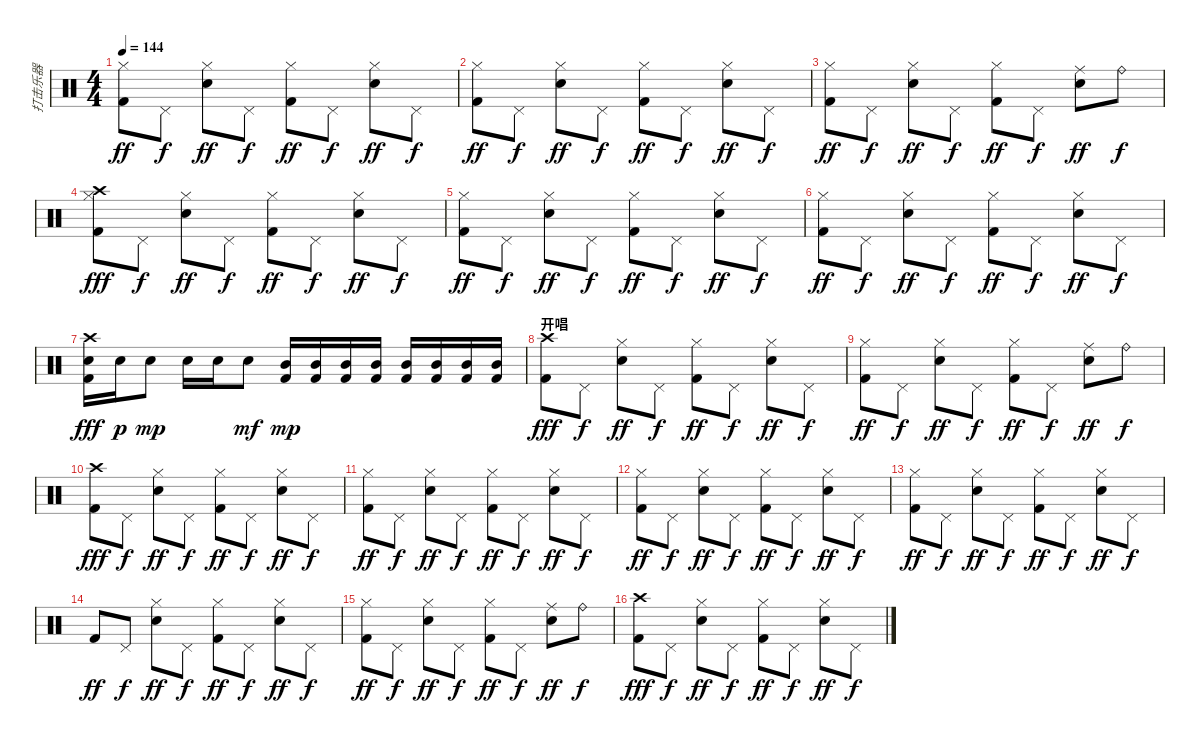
\track ("打击乐器" "打击乐器") {instrument percussion}
\staff {score}
\articulation defaults
\ts (4 4)
\tempo 144
\clef neutral
\ks c
("Kick (hit) 2" "Hi-Hat (closed)").8{dy ff} "Pedal Hi-Hat (hit)".8{dy f} ("Snare (hit) 2" "Hi-Hat (closed)").8{dy ff} "Pedal Hi-Hat (hit)".8{dy f} ("Kick (hit) 2" "Hi-Hat (closed)").8{dy ff} "Pedal Hi-Hat (hit)".8{dy f} ("Snare (hit) 2" "Hi-Hat (closed)").8{dy ff} "Pedal Hi-Hat (hit)".8{dy f} |
("Kick (hit) 2" "Hi-Hat (closed)").8{dy ff} "Pedal Hi-Hat (hit)".8{dy f} ("Snare (hit) 2" "Hi-Hat (closed)").8{dy ff} "Pedal Hi-Hat (hit)".8{dy f} ("Kick (hit) 2" "Hi-Hat (closed)").8{dy ff} "Pedal Hi-Hat (hit)".8{dy f} ("Snare (hit) 2" "Hi-Hat (closed)").8{dy ff} "Pedal Hi-Hat (hit)".8{dy f} |
("Kick (hit) 2" "Hi-Hat (closed)").8{dy ff} "Pedal Hi-Hat (hit)".8{dy f} ("Snare (hit) 2" "Hi-Hat (closed)").8{dy ff} "Pedal Hi-Hat (hit)".8{dy f} ("Kick (hit) 2" "Hi-Hat (closed)").8{dy ff} "Pedal Hi-Hat (hit)".8{dy f} ("Snare (hit) 2" "Ride (middle)").8{dy ff} "Ride (bell)".8{dy f} |
("Kick (hit) 2" "Hi-Hat (closed)" "Crash high (hit)").8{dy fff} "Pedal Hi-Hat (hit)".8{dy f} ("Snare (hit) 2" "Hi-Hat (closed)").8{dy ff} "Pedal Hi-Hat (hit)".8{dy f} ("Kick (hit) 2" "Hi-Hat (closed)").8{dy ff} "Pedal Hi-Hat (hit)".8{dy f} ("Snare (hit) 2" "Hi-Hat (closed)").8{dy ff} "Pedal Hi-Hat (hit)".8{dy f} |
("Kick (hit) 2" "Hi-Hat (closed)").8{dy ff} "Pedal Hi-Hat (hit)".8{dy f} ("Snare (hit) 2" "Hi-Hat (closed)").8{dy ff} "Pedal Hi-Hat (hit)".8{dy f} ("Kick (hit) 2" "Hi-Hat (closed)").8{dy ff} "Pedal Hi-Hat (hit)".8{dy f} ("Snare (hit) 2" "Hi-Hat (closed)").8{dy ff} "Pedal Hi-Hat (hit)".8{dy f} |
("Kick (hit) 2" "Hi-Hat (closed)").8{dy ff} "Pedal Hi-Hat (hit)".8{dy f} ("Snare (hit) 2" "Hi-Hat (closed)").8{dy ff} "Pedal Hi-Hat (hit)".8{dy f} ("Kick (hit) 2" "Hi-Hat (closed)").8{dy ff} "Pedal Hi-Hat (hit)".8{dy f} ("Snare (hit) 2" "Hi-Hat (closed)").8{dy ff} "Pedal Hi-Hat (hit)".8{dy f} |
("Kick (hit) 2" "Snare (hit) 2" "Crash high (hit)").16{dy fff} "Snare (hit) 2".16{dy p} "Snare (hit) 2".8{dy mp} "Snare (hit) 2".16 "Snare (hit) 2".16 "Snare (hit) 2".8{dy mf} ("Kick (hit) 2" "Mid Tom (hit)").16{dy mp} ("Kick (hit) 2" "Mid Tom (hit)").16 ("Kick (hit) 2" "Mid Tom (hit)").16 ("Kick (hit) 2" "Mid Tom (hit)").16 ("Kick (hit) 2" "Mid Tom (hit)").16 ("Kick (hit) 2" "Mid Tom (hit)").16 ("Kick (hit) 2" "Mid Tom (hit)").16 ("Kick (hit) 2" "Mid Tom (hit)").16 |
\section ("" "开唱")
("Kick (hit) 2" "Crash high (hit)").8{dy fff} "Pedal Hi-Hat (hit)".8{dy f} ("Snare (hit) 2" "Hi-Hat (closed)").8{dy ff} "Pedal Hi-Hat (hit)".8{dy f} ("Kick (hit) 2" "Hi-Hat (closed)").8{dy ff} "Pedal Hi-Hat (hit)".8{dy f} ("Snare (hit) 2" "Hi-Hat (closed)").8{dy ff} "Pedal Hi-Hat (hit)".8{dy f} |
("Kick (hit) 2" "Hi-Hat (closed)").8{dy ff} "Pedal Hi-Hat (hit)".8{dy f} ("Snare (hit) 2" "Hi-Hat (closed)").8{dy ff} "Pedal Hi-Hat (hit)".8{dy f} ("Kick (hit) 2" "Hi-Hat (closed)").8{dy ff} "Pedal Hi-Hat (hit)".8{dy f} ("Snare (hit) 2" "Ride (middle)").8{dy ff} "Ride (bell)".8{dy f} |
("Kick (hit) 2" "Crash high (hit)").8{dy fff} "Pedal Hi-Hat (hit)".8{dy f} ("Snare (hit) 2" "Hi-Hat (closed)").8{dy ff} "Pedal Hi-Hat (hit)".8{dy f} ("Kick (hit) 2" "Hi-Hat (closed)").8{dy ff} "Pedal Hi-Hat (hit)".8{dy f} ("Snare (hit) 2" "Hi-Hat (closed)").8{dy ff} "Pedal Hi-Hat (hit)".8{dy f} |
("Kick (hit) 2" "Hi-Hat (closed)").8{dy ff} "Pedal Hi-Hat (hit)".8{dy f} ("Snare (hit) 2" "Hi-Hat (closed)").8{dy ff} "Pedal Hi-Hat (hit)".8{dy f} ("Kick (hit) 2" "Hi-Hat (closed)").8{dy ff} "Pedal Hi-Hat (hit)".8{dy f} ("Snare (hit) 2" "Hi-Hat (closed)").8{dy ff} "Pedal Hi-Hat (hit)".8{dy f} |
("Kick (hit) 2" "Hi-Hat (closed)").8{dy ff} "Pedal Hi-Hat (hit)".8{dy f} ("Snare (hit) 2" "Hi-Hat (closed)").8{dy ff} "Pedal Hi-Hat (hit)".8{dy f} ("Kick (hit) 2" "Hi-Hat (closed)").8{dy ff} "Pedal Hi-Hat (hit)".8{dy f} ("Snare (hit) 2" "Hi-Hat (closed)").8{dy ff} "Pedal Hi-Hat (hit)".8{dy f} |
("Kick (hit) 2" "Hi-Hat (closed)").8{dy ff} "Pedal Hi-Hat (hit)".8{dy f} ("Snare (hit) 2" "Hi-Hat (closed)").8{dy ff} "Pedal Hi-Hat (hit)".8{dy f} ("Kick (hit) 2" "Hi-Hat (closed)").8{dy ff} "Pedal Hi-Hat (hit)".8{dy f} ("Snare (hit) 2" "Hi-Hat (closed)").8{dy ff} "Pedal Hi-Hat (hit)".8{dy f} |
"Kick (hit) 2".8{dy ff} "Pedal Hi-Hat (hit)".8{dy f} ("Snare (hit) 2" "Hi-Hat (closed)").8{dy ff} "Pedal Hi-Hat (hit)".8{dy f} ("Kick (hit) 2" "Hi-Hat (closed)").8{dy ff} "Pedal Hi-Hat (hit)".8{dy f} ("Snare (hit) 2" "Hi-Hat (closed)").8{dy ff} "Pedal Hi-Hat (hit)".8{dy f} |
("Kick (hit) 2" "Hi-Hat (closed)").8{dy ff} "Pedal Hi-Hat (hit)".8{dy f} ("Snare (hit) 2" "Hi-Hat (closed)").8{dy ff} "Pedal Hi-Hat (hit)".8{dy f} ("Kick (hit) 2" "Hi-Hat (closed)").8{dy ff} "Pedal Hi-Hat (hit)".8{dy f} ("Snare (hit) 2" "Ride (middle)").8{dy ff} "Ride (bell)".8{dy f} |
("Kick (hit) 2" "Crash high (hit)").8{dy fff} "Pedal Hi-Hat (hit)".8{dy f} ("Snare (hit) 2" "Hi-Hat (closed)").8{dy ff} "Pedal Hi-Hat (hit)".8{dy f} ("Kick (hit) 2" "Hi-Hat (closed)").8{dy ff} "Pedal Hi-Hat (hit)".8{dy f} ("Snare (hit) 2" "Hi-Hat (closed)").8{dy ff} "Pedal Hi-Hat (hit)".8{dy f}
